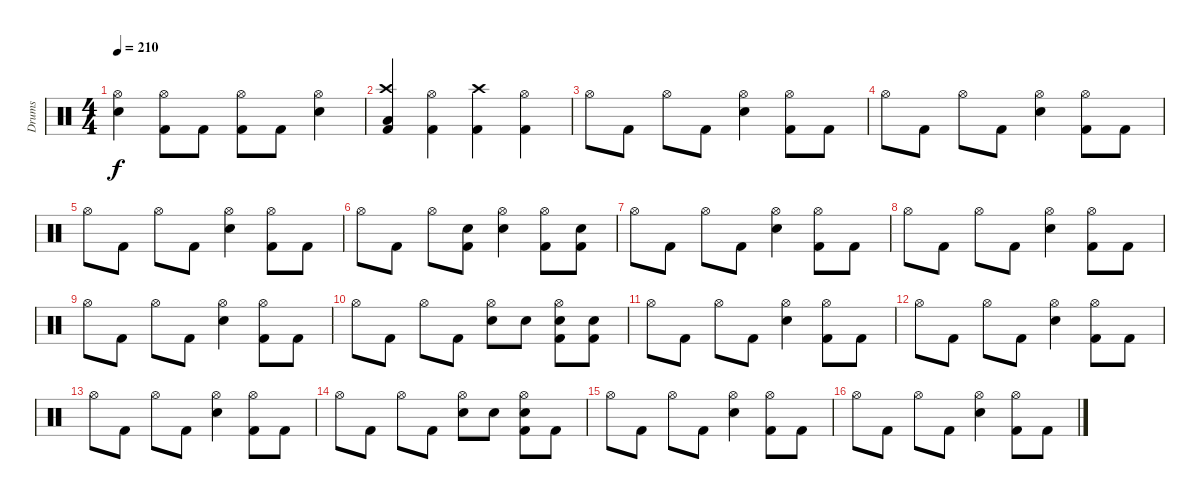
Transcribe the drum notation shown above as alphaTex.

\track ("Drums" "Drums") {instrument percussion}
\staff {score}
\articulation defaults
\ts (4 4)
\tempo 210
\clef neutral
\ks c
("Hi-Hat (open)" "Electric Snare (hit)").4{dy f} ("Hi-Hat (open)" "Kick (hit) 2").8 "Kick (hit) 2".8 ("Hi-Hat (open)" "Kick (hit) 2").8 "Kick (hit) 2".8 ("Hi-Hat (open)" "Electric Snare (hit)").4 |
("Crash high (hit)" "Low Tom (hit)" "Kick (hit) 2").4 ("Hi-Hat (open)" "Kick (hit) 2").4 ("Crash high (hit)" "Kick (hit) 2").4 ("Hi-Hat (open)" "Kick (hit) 2").4 |
"Hi-Hat (open)".8 "Kick (hit) 2".8 "Hi-Hat (open)".8 "Kick (hit) 2".8 ("Hi-Hat (open)" "Electric Snare (hit)").4 ("Hi-Hat (open)" "Kick (hit) 2").8 "Kick (hit) 2".8 |
"Hi-Hat (open)".8 "Kick (hit) 2".8 "Hi-Hat (open)".8 "Kick (hit) 2".8 ("Hi-Hat (open)" "Electric Snare (hit)").4 ("Hi-Hat (open)" "Kick (hit) 2").8 "Kick (hit) 2".8 |
"Hi-Hat (open)".8 "Kick (hit) 2".8 "Hi-Hat (open)".8 "Kick (hit) 2".8 ("Hi-Hat (open)" "Electric Snare (hit)").4 ("Hi-Hat (open)" "Kick (hit) 2").8 "Kick (hit) 2".8 |
"Hi-Hat (open)".8 "Kick (hit) 2".8 "Hi-Hat (open)".8 ("Electric Snare (hit)" "Kick (hit) 2").8 ("Hi-Hat (open)" "Electric Snare (hit)").4 ("Hi-Hat (open)" "Kick (hit) 2").8 ("Electric Snare (hit)" "Kick (hit) 2").8 |
"Hi-Hat (open)".8 "Kick (hit) 2".8 "Hi-Hat (open)".8 "Kick (hit) 2".8 ("Hi-Hat (open)" "Electric Snare (hit)").4 ("Hi-Hat (open)" "Kick (hit) 2").8 "Kick (hit) 2".8 |
"Hi-Hat (open)".8 "Kick (hit) 2".8 "Hi-Hat (open)".8 "Kick (hit) 2".8 ("Hi-Hat (open)" "Electric Snare (hit)").4 ("Hi-Hat (open)" "Kick (hit) 2").8 "Kick (hit) 2".8 |
"Hi-Hat (open)".8 "Kick (hit) 2".8 "Hi-Hat (open)".8 "Kick (hit) 2".8 ("Hi-Hat (open)" "Electric Snare (hit)").4 ("Hi-Hat (open)" "Kick (hit) 2").8 "Kick (hit) 2".8 |
"Hi-Hat (open)".8 "Kick (hit) 2".8 "Hi-Hat (open)".8 "Kick (hit) 2".8 ("Hi-Hat (open)" "Electric Snare (hit)").8 "Electric Snare (hit)".8 ("Hi-Hat (open)" "Electric Snare (hit)" "Kick (hit) 2").8 ("Electric Snare (hit)" "Kick (hit) 2").8 |
"Hi-Hat (open)".8 "Kick (hit) 2".8 "Hi-Hat (open)".8 "Kick (hit) 2".8 ("Hi-Hat (open)" "Electric Snare (hit)").4 ("Hi-Hat (open)" "Kick (hit) 2").8 "Kick (hit) 2".8 |
"Hi-Hat (open)".8 "Kick (hit) 2".8 "Hi-Hat (open)".8 "Kick (hit) 2".8 ("Hi-Hat (open)" "Electric Snare (hit)").4 ("Hi-Hat (open)" "Kick (hit) 2").8 "Kick (hit) 2".8 |
"Hi-Hat (open)".8 "Kick (hit) 2".8 "Hi-Hat (open)".8 "Kick (hit) 2".8 ("Hi-Hat (open)" "Electric Snare (hit)").4 ("Hi-Hat (open)" "Kick (hit) 2").8 "Kick (hit) 2".8 |
"Hi-Hat (open)".8 "Kick (hit) 2".8 "Hi-Hat (open)".8 "Kick (hit) 2".8 ("Hi-Hat (open)" "Electric Snare (hit)").8 "Electric Snare (hit)".8 ("Hi-Hat (open)" "Electric Snare (hit)" "Kick (hit) 2").8 "Kick (hit) 2".8 |
"Hi-Hat (open)".8 "Kick (hit) 2".8 "Hi-Hat (open)".8 "Kick (hit) 2".8 ("Hi-Hat (open)" "Electric Snare (hit)").4 ("Hi-Hat (open)" "Kick (hit) 2").8 "Kick (hit) 2".8 |
"Hi-Hat (open)".8 "Kick (hit) 2".8 "Hi-Hat (open)".8 "Kick (hit) 2".8 ("Hi-Hat (open)" "Electric Snare (hit)").4 ("Hi-Hat (open)" "Kick (hit) 2").8 "Kick (hit) 2".8
